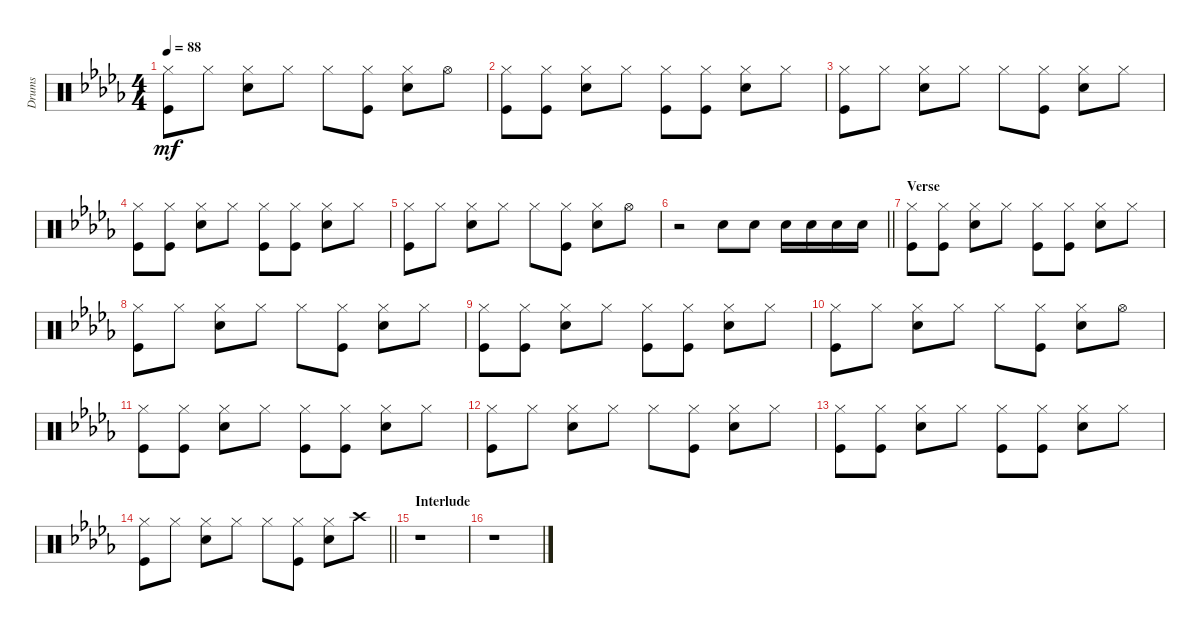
\track ("Drums" "Drums") {instrument percussion}
\staff {score}
\articulation defaults
\ts (4 4)
\tempo 88
\clef neutral
\ks bbminor
("Hi-Hat (closed)" "Kick (hit)").8{dy mf} "Hi-Hat (closed)".8 ("Hi-Hat (closed)" "Electric Snare (hit)").8 "Hi-Hat (closed)".8 "Hi-Hat (closed)".8 ("Hi-Hat (closed)" "Kick (hit)").8 ("Hi-Hat (closed)" "Electric Snare (hit)").8 "Hi-Hat (open)".8 |
("Hi-Hat (closed)" "Kick (hit)").8 ("Hi-Hat (closed)" "Kick (hit)").8 ("Hi-Hat (closed)" "Electric Snare (hit)").8 "Hi-Hat (closed)".8 ("Hi-Hat (closed)" "Kick (hit)").8 ("Hi-Hat (closed)" "Kick (hit)").8 ("Hi-Hat (closed)" "Electric Snare (hit)").8 "Hi-Hat (closed)".8 |
("Hi-Hat (closed)" "Kick (hit)").8 "Hi-Hat (closed)".8 ("Hi-Hat (closed)" "Electric Snare (hit)").8 "Hi-Hat (closed)".8 "Hi-Hat (closed)".8 ("Hi-Hat (closed)" "Kick (hit)").8 ("Hi-Hat (closed)" "Electric Snare (hit)").8 "Hi-Hat (closed)".8 |
("Hi-Hat (closed)" "Kick (hit)").8 ("Hi-Hat (closed)" "Kick (hit)").8 ("Hi-Hat (closed)" "Electric Snare (hit)").8 "Hi-Hat (closed)".8 ("Hi-Hat (closed)" "Kick (hit)").8 ("Hi-Hat (closed)" "Kick (hit)").8 ("Hi-Hat (closed)" "Electric Snare (hit)").8 "Hi-Hat (closed)".8 |
("Hi-Hat (closed)" "Kick (hit)").8 "Hi-Hat (closed)".8 ("Hi-Hat (closed)" "Electric Snare (hit)").8 "Hi-Hat (closed)".8 "Hi-Hat (closed)".8 ("Hi-Hat (closed)" "Kick (hit)").8 ("Hi-Hat (closed)" "Electric Snare (hit)").8 "Hi-Hat (open)".8 |
\barLineRight lightlight
r.2 "Electric Snare (hit)".8 "Electric Snare (hit)".8 "Electric Snare (hit)".16 "Electric Snare (hit)".16 "Electric Snare (hit)".16 "Electric Snare (hit)".16 |
\section ("" "Verse")
("Hi-Hat (closed)" "Kick (hit)").8 ("Hi-Hat (closed)" "Kick (hit)").8 ("Hi-Hat (closed)" "Electric Snare (hit)").8 "Hi-Hat (closed)".8 ("Hi-Hat (closed)" "Kick (hit)").8 ("Hi-Hat (closed)" "Kick (hit)").8 ("Hi-Hat (closed)" "Electric Snare (hit)").8 "Hi-Hat (closed)".8 |
("Hi-Hat (closed)" "Kick (hit)").8 "Hi-Hat (closed)".8 ("Hi-Hat (closed)" "Electric Snare (hit)").8 "Hi-Hat (closed)".8 "Hi-Hat (closed)".8 ("Hi-Hat (closed)" "Kick (hit)").8 ("Hi-Hat (closed)" "Electric Snare (hit)").8 "Hi-Hat (closed)".8 |
("Hi-Hat (closed)" "Kick (hit)").8 ("Hi-Hat (closed)" "Kick (hit)").8 ("Hi-Hat (closed)" "Electric Snare (hit)").8 "Hi-Hat (closed)".8 ("Hi-Hat (closed)" "Kick (hit)").8 ("Hi-Hat (closed)" "Kick (hit)").8 ("Hi-Hat (closed)" "Electric Snare (hit)").8 "Hi-Hat (closed)".8 |
("Hi-Hat (closed)" "Kick (hit)").8 "Hi-Hat (closed)".8 ("Hi-Hat (closed)" "Electric Snare (hit)").8 "Hi-Hat (closed)".8 "Hi-Hat (closed)".8 ("Hi-Hat (closed)" "Kick (hit)").8 ("Hi-Hat (closed)" "Electric Snare (hit)").8 "Hi-Hat (open)".8 |
("Hi-Hat (closed)" "Kick (hit)").8 ("Hi-Hat (closed)" "Kick (hit)").8 ("Hi-Hat (closed)" "Electric Snare (hit)").8 "Hi-Hat (closed)".8 ("Hi-Hat (closed)" "Kick (hit)").8 ("Hi-Hat (closed)" "Kick (hit)").8 ("Hi-Hat (closed)" "Electric Snare (hit)").8 "Hi-Hat (closed)".8 |
("Hi-Hat (closed)" "Kick (hit)").8 "Hi-Hat (closed)".8 ("Hi-Hat (closed)" "Electric Snare (hit)").8 "Hi-Hat (closed)".8 "Hi-Hat (closed)".8 ("Hi-Hat (closed)" "Kick (hit)").8 ("Hi-Hat (closed)" "Electric Snare (hit)").8 "Hi-Hat (closed)".8 |
("Hi-Hat (closed)" "Kick (hit)").8 ("Hi-Hat (closed)" "Kick (hit)").8 ("Hi-Hat (closed)" "Electric Snare (hit)").8 "Hi-Hat (closed)".8 ("Hi-Hat (closed)" "Kick (hit)").8 ("Hi-Hat (closed)" "Kick (hit)").8 ("Hi-Hat (closed)" "Electric Snare (hit)").8 "Hi-Hat (closed)".8 |
\barLineRight lightlight
("Hi-Hat (closed)" "Kick (hit)").8 "Hi-Hat (closed)".8 ("Hi-Hat (closed)" "Electric Snare (hit)").8 "Hi-Hat (closed)".8 "Hi-Hat (closed)".8 ("Hi-Hat (closed)" "Kick (hit)").8 ("Hi-Hat (closed)" "Electric Snare (hit)").8 "Crash high (hit)".8 |
\section ("" "Interlude")
r.1 |
r.1
